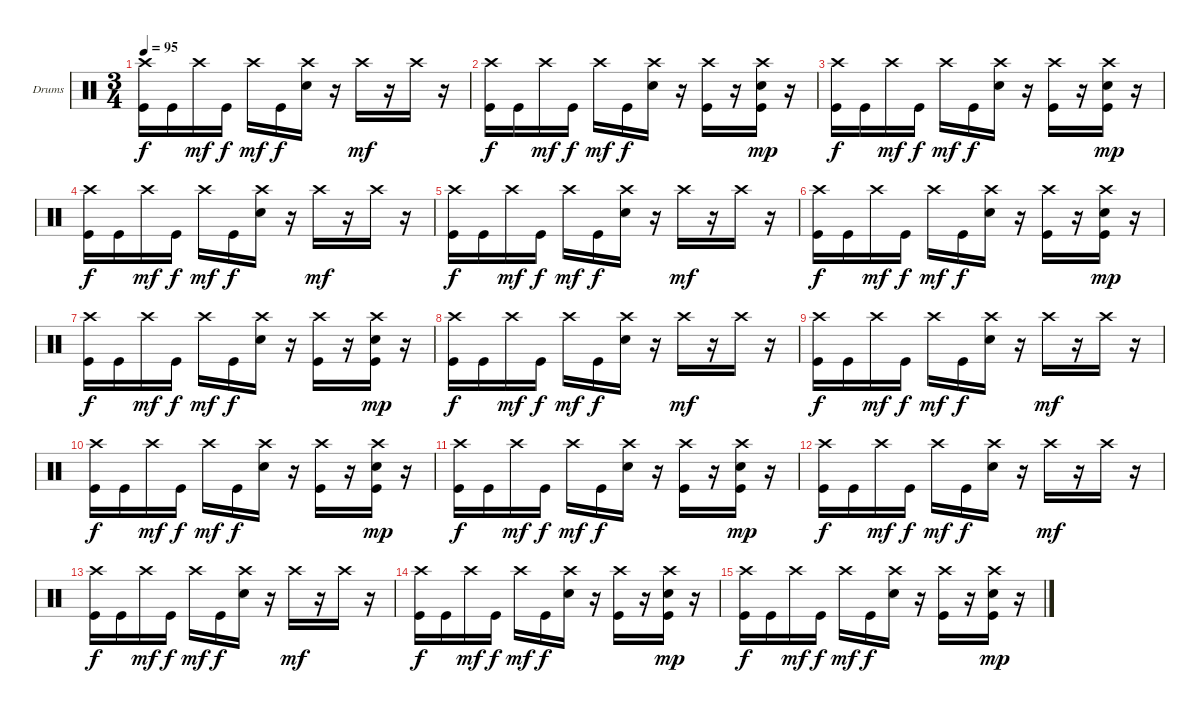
\defaultSystemsLayout 4
\bracketExtendMode groupsimilarinstruments
\firstSystemTrackNameOrientation horizontal
\otherSystemsTrackNameOrientation horizontal
\track ("Drumkit" "Drums") {instrument percussion}
\staff {score}
\articulation defaults
\ts (3 4)
\tempo 95
\clef neutral
\ks c
("Kick (hit)" "Crash high (hit)").16{dy f} "Kick (hit)".16 "Crash high (hit)".16{dy mf} "Kick (hit)".16{dy f} "Crash high (hit)".16{dy mf} "Kick (hit)".16{dy f} ("Snare (hit) 2" "Crash high (hit)").16 r.16 "Crash high (hit)".16{dy mf} r.16 "Crash high (hit)".16 r.16 |
("Kick (hit)" "Crash high (hit)").16{dy f} "Kick (hit)".16 "Crash high (hit)".16{dy mf} "Kick (hit)".16{dy f} "Crash high (hit)".16{dy mf} "Kick (hit)".16{dy f} ("Snare (hit) 2" "Crash high (hit)").16 r.16 ("Kick (hit)" "Crash high (hit)").16 r.16 ("Kick (hit)" "Snare (hit) 2" "Crash high (hit)").16{dy mp} r.16 |
("Kick (hit)" "Crash high (hit)").16{dy f} "Kick (hit)".16 "Crash high (hit)".16{dy mf} "Kick (hit)".16{dy f} "Crash high (hit)".16{dy mf} "Kick (hit)".16{dy f} ("Snare (hit) 2" "Crash high (hit)").16 r.16 ("Kick (hit)" "Crash high (hit)").16 r.16 ("Kick (hit)" "Snare (hit) 2" "Crash high (hit)").16{dy mp} r.16 |
("Kick (hit)" "Crash high (hit)").16{dy f} "Kick (hit)".16 "Crash high (hit)".16{dy mf} "Kick (hit)".16{dy f} "Crash high (hit)".16{dy mf} "Kick (hit)".16{dy f} ("Snare (hit) 2" "Crash high (hit)").16 r.16 "Crash high (hit)".16{dy mf} r.16 "Crash high (hit)".16 r.16 |
("Kick (hit)" "Crash high (hit)").16{dy f} "Kick (hit)".16 "Crash high (hit)".16{dy mf} "Kick (hit)".16{dy f} "Crash high (hit)".16{dy mf} "Kick (hit)".16{dy f} ("Snare (hit) 2" "Crash high (hit)").16 r.16 "Crash high (hit)".16{dy mf} r.16 "Crash high (hit)".16 r.16 |
("Kick (hit)" "Crash high (hit)").16{dy f} "Kick (hit)".16 "Crash high (hit)".16{dy mf} "Kick (hit)".16{dy f} "Crash high (hit)".16{dy mf} "Kick (hit)".16{dy f} ("Snare (hit) 2" "Crash high (hit)").16 r.16 ("Kick (hit)" "Crash high (hit)").16 r.16 ("Kick (hit)" "Snare (hit) 2" "Crash high (hit)").16{dy mp} r.16 |
("Kick (hit)" "Crash high (hit)").16{dy f} "Kick (hit)".16 "Crash high (hit)".16{dy mf} "Kick (hit)".16{dy f} "Crash high (hit)".16{dy mf} "Kick (hit)".16{dy f} ("Snare (hit) 2" "Crash high (hit)").16 r.16 ("Kick (hit)" "Crash high (hit)").16 r.16 ("Kick (hit)" "Snare (hit) 2" "Crash high (hit)").16{dy mp} r.16 |
("Kick (hit)" "Crash high (hit)").16{dy f} "Kick (hit)".16 "Crash high (hit)".16{dy mf} "Kick (hit)".16{dy f} "Crash high (hit)".16{dy mf} "Kick (hit)".16{dy f} ("Snare (hit) 2" "Crash high (hit)").16 r.16 "Crash high (hit)".16{dy mf} r.16 "Crash high (hit)".16 r.16 |
("Kick (hit)" "Crash high (hit)").16{dy f} "Kick (hit)".16 "Crash high (hit)".16{dy mf} "Kick (hit)".16{dy f} "Crash high (hit)".16{dy mf} "Kick (hit)".16{dy f} ("Snare (hit) 2" "Crash high (hit)").16 r.16 "Crash high (hit)".16{dy mf} r.16 "Crash high (hit)".16 r.16 |
("Kick (hit)" "Crash high (hit)").16{dy f} "Kick (hit)".16 "Crash high (hit)".16{dy mf} "Kick (hit)".16{dy f} "Crash high (hit)".16{dy mf} "Kick (hit)".16{dy f} ("Snare (hit) 2" "Crash high (hit)").16 r.16 ("Kick (hit)" "Crash high (hit)").16 r.16 ("Kick (hit)" "Snare (hit) 2" "Crash high (hit)").16{dy mp} r.16 |
("Kick (hit)" "Crash high (hit)").16{dy f} "Kick (hit)".16 "Crash high (hit)".16{dy mf} "Kick (hit)".16{dy f} "Crash high (hit)".16{dy mf} "Kick (hit)".16{dy f} ("Snare (hit) 2" "Crash high (hit)").16 r.16 ("Kick (hit)" "Crash high (hit)").16 r.16 ("Kick (hit)" "Snare (hit) 2" "Crash high (hit)").16{dy mp} r.16 |
("Kick (hit)" "Crash high (hit)").16{dy f} "Kick (hit)".16 "Crash high (hit)".16{dy mf} "Kick (hit)".16{dy f} "Crash high (hit)".16{dy mf} "Kick (hit)".16{dy f} ("Snare (hit) 2" "Crash high (hit)").16 r.16 "Crash high (hit)".16{dy mf} r.16 "Crash high (hit)".16 r.16 |
("Kick (hit)" "Crash high (hit)").16{dy f} "Kick (hit)".16 "Crash high (hit)".16{dy mf} "Kick (hit)".16{dy f} "Crash high (hit)".16{dy mf} "Kick (hit)".16{dy f} ("Snare (hit) 2" "Crash high (hit)").16 r.16 "Crash high (hit)".16{dy mf} r.16 "Crash high (hit)".16 r.16 |
("Kick (hit)" "Crash high (hit)").16{dy f} "Kick (hit)".16 "Crash high (hit)".16{dy mf} "Kick (hit)".16{dy f} "Crash high (hit)".16{dy mf} "Kick (hit)".16{dy f} ("Snare (hit) 2" "Crash high (hit)").16 r.16 ("Kick (hit)" "Crash high (hit)").16 r.16 ("Kick (hit)" "Snare (hit) 2" "Crash high (hit)").16{dy mp} r.16 |
("Kick (hit)" "Crash high (hit)").16{dy f} "Kick (hit)".16 "Crash high (hit)".16{dy mf} "Kick (hit)".16{dy f} "Crash high (hit)".16{dy mf} "Kick (hit)".16{dy f} ("Snare (hit) 2" "Crash high (hit)").16 r.16 ("Kick (hit)" "Crash high (hit)").16 r.16 ("Kick (hit)" "Snare (hit) 2" "Crash high (hit)").16{dy mp} r.16
